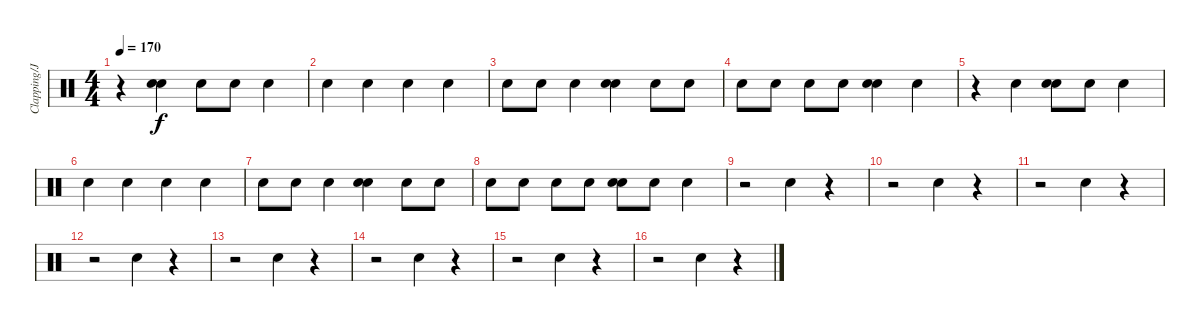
\track ("Clapping/Jay-Z (snare)" "Clapping/J") {instrument percussion}
\staff {score}
\articulation defaults
\ts (4 4)
\tempo 170
\clef neutral
\ks c
r.4{dy f} ("Hand Clap (hit)" "Electric Snare (hit)").4 "Electric Snare (hit)".8 "Electric Snare (hit)".8 "Electric Snare (hit)".4 |
"Electric Snare (hit)".4 "Electric Snare (hit)".4 "Hand Clap (hit)".4 "Electric Snare (hit)".4 |
"Electric Snare (hit)".8 "Electric Snare (hit)".8 "Electric Snare (hit)".4 ("Hand Clap (hit)" "Electric Snare (hit)").4 "Electric Snare (hit)".8 "Electric Snare (hit)".8 |
"Electric Snare (hit)".8 "Electric Snare (hit)".8 "Electric Snare (hit)".8 "Electric Snare (hit)".8 ("Hand Clap (hit)" "Electric Snare (hit)").4 "Electric Snare (hit)".4 |
r.4 "Electric Snare (hit)".4 ("Hand Clap (hit)" "Electric Snare (hit)").8 "Electric Snare (hit)".8 "Electric Snare (hit)".4 |
"Electric Snare (hit)".4 "Electric Snare (hit)".4 "Hand Clap (hit)".4 "Electric Snare (hit)".4 |
"Electric Snare (hit)".8 "Electric Snare (hit)".8 "Electric Snare (hit)".4 ("Hand Clap (hit)" "Electric Snare (hit)").4 "Electric Snare (hit)".8 "Electric Snare (hit)".8 |
"Electric Snare (hit)".8 "Electric Snare (hit)".8 "Electric Snare (hit)".8 "Electric Snare (hit)".8 ("Hand Clap (hit)" "Electric Snare (hit)").8 "Electric Snare (hit)".8 "Electric Snare (hit)".4 |
r.2 "Hand Clap (hit)".4 r.4 |
r.2 "Hand Clap (hit)".4 r.4 |
r.2 "Hand Clap (hit)".4 r.4 |
r.2 "Hand Clap (hit)".4 r.4 |
r.2 "Hand Clap (hit)".4 r.4 |
r.2 "Hand Clap (hit)".4 r.4 |
r.2 "Hand Clap (hit)".4 r.4 |
r.2 "Hand Clap (hit)".4 r.4
